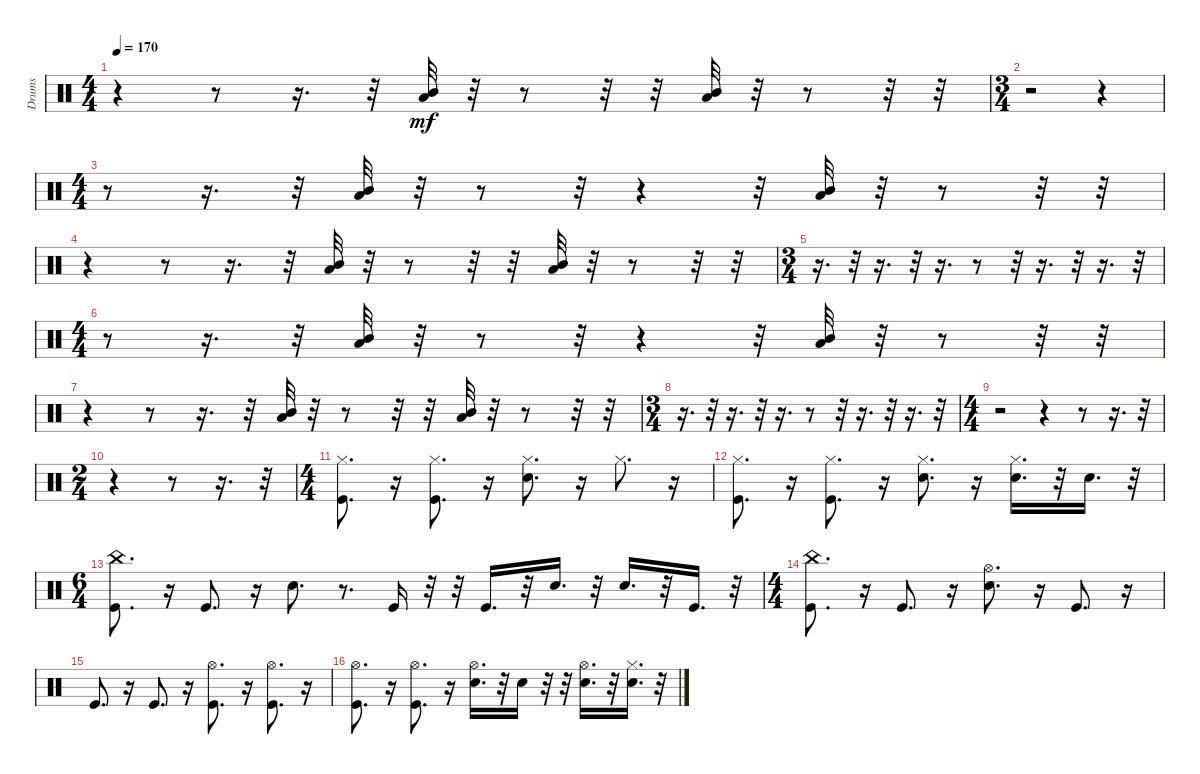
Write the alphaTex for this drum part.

\track ("Drums" "Drums") {instrument percussion}
\staff {score}
\articulation defaults
\ts (4 4)
\tempo 170
\clef neutral
\ks c
r.4{dy mf} r.8 r.16{d} r.32 ("Low Tom (hit)" "Mid Tom (hit)").32 r.32 r.8 r.32 r.32 ("Low Tom (hit)" "Mid Tom (hit)").32 r.32 r.8 r.32 r.32 |
\ts (3 4)
r.2 r.4 |
\ts (4 4)
r.8 r.16{d} r.32 ("Low Tom (hit)" "Mid Tom (hit)").32 r.32 r.8 r.32 r.4 r.32 ("Low Tom (hit)" "Mid Tom (hit)").32 r.32 r.8 r.32 r.32 |
r.4 r.8 r.16{d} r.32 ("Low Tom (hit)" "Mid Tom (hit)").32 r.32 r.8 r.32 r.32 ("Low Tom (hit)" "Mid Tom (hit)").32 r.32 r.8 r.32 r.32 |
\ts (3 4)
r.16{d} r.32 r.16{d} r.32 r.16{d} r.8 r.32 r.16{d} r.32 r.16{d} r.32 |
\ts (4 4)
r.8 r.16{d} r.32 ("Low Tom (hit)" "Mid Tom (hit)").32 r.32 r.8 r.32 r.4 r.32 ("Low Tom (hit)" "Mid Tom (hit)").32 r.32 r.8 r.32 r.32 |
r.4 r.8 r.16{d} r.32 ("Low Tom (hit)" "Mid Tom (hit)").32 r.32 r.8 r.32 r.32 ("Low Tom (hit)" "Mid Tom (hit)").32 r.32 r.8 r.32 r.32 |
\ts (3 4)
r.16{d} r.32 r.16{d} r.32 r.16{d} r.8 r.32 r.16{d} r.32 r.16{d} r.32 |
\ts (4 4)
r.2 r.4 r.8 r.16{d} r.32 |
\ts (2 4)
r.4 r.8 r.16{d} r.32 |
\ts (4 4)
("Kick (hit)" "Hi-Hat (closed)").8{d} r.16 ("Kick (hit)" "Hi-Hat (closed)").8{d} r.16 ("Snare (hit) 2" "Hi-Hat (closed)").8{d} r.16 "Hi-Hat (closed)".8{d} r.16 |
("Kick (hit)" "Hi-Hat (closed)").8{d} r.16 ("Kick (hit)" "Hi-Hat (closed)").8{d} r.16 ("Snare (hit) 2" "Hi-Hat (closed)").8{d} r.16 ("Snare (hit) 2" "Hi-Hat (closed)").16{d} r.32 "Snare (hit) 2".16{d} r.32 |
\ts (6 4)
("Kick (hit)" "China (hit)").8{d} r.16 "Kick (hit)".8{d} r.16 "Snare (hit) 2".8{d} r.8{d} "Kick (hit)".16 r.32 r.32 "Kick (hit)".16{d} r.32 "Snare (hit) 2".16{d} r.32 "Snare (hit) 2".16{d} r.32 "Kick (hit)".16{d} r.32 |
\ts (4 4)
("Kick (hit)" "China (hit)").8{d} r.16 "Kick (hit)".8{d} r.16 ("Snare (hit) 2" "Hi-Hat (open)").8{d} r.16 "Kick (hit)".8{d} r.16 |
"Kick (hit)".8{d} r.16 "Kick (hit)".8{d} r.16 ("Kick (hit)" "Hi-Hat (open)").8{d} r.16 ("Kick (hit)" "Hi-Hat (open)").8{d} r.16 |
("Kick (hit)" "Hi-Hat (open)").8{d} r.16 ("Kick (hit)" "Hi-Hat (open)").8{d} r.16 ("Snare (hit) 2" "Hi-Hat (open)").16{d} r.32 "Snare (hit) 2".16 r.32 r.32 ("Snare (hit) 2" "Hi-Hat (open)").16{d} r.32 ("Snare (hit) 2" "Hi-Hat (closed)").16{d} r.32
